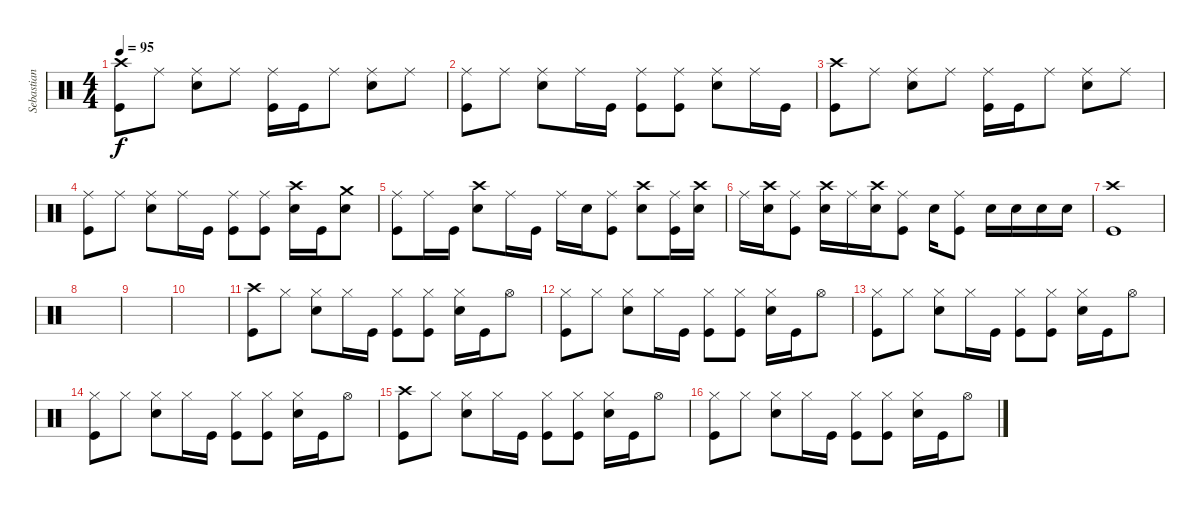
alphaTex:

\track ("Sebastian" "Sebastian") {instrument percussion}
\staff {score}
\articulation defaults
\ts (4 4)
\tempo 95
\clef neutral
\ks c
("Kick (hit)" "Crash high (hit)").8{dy f} "Ride (middle)".8 ("Snare (hit) 2" "Ride (middle)").8 "Ride (middle)".8 ("Kick (hit)" "Ride (middle)").16 "Kick (hit)".16 "Ride (middle)".8 ("Snare (hit) 2" "Ride (middle)").8 "Ride (middle)".8 |
("Kick (hit)" "Ride (middle)").8 "Ride (middle)".8 ("Snare (hit) 2" "Ride (middle)").8 "Ride (middle)".16 "Kick (hit)".16 ("Kick (hit)" "Ride (middle)").8 ("Kick (hit)" "Ride (middle)").8 ("Snare (hit) 2" "Ride (middle)").8 "Ride (middle)".16 "Kick (hit)".16 |
("Kick (hit)" "Crash high (hit)").8 "Ride (middle)".8 ("Snare (hit) 2" "Ride (middle)").8 "Ride (middle)".8 ("Kick (hit)" "Ride (middle)").16 "Kick (hit)".16 "Ride (middle)".8 ("Snare (hit) 2" "Ride (middle)").8 "Ride (middle)".8 |
("Kick (hit)" "Ride (middle)").8 "Ride (middle)".8 ("Snare (hit) 2" "Ride (middle)").8 "Ride (middle)".16 "Kick (hit)".16 ("Kick (hit)" "Ride (middle)").8 ("Kick (hit)" "Ride (middle)").8 ("Snare (hit) 2" "Crash high (hit)").16 "Kick (hit)".16 ("Snare (hit) 2" "Crash medium (hit)").8 |
("Kick (hit)" "Ride (middle)").8 "Ride (middle)".16 "Kick (hit)".16 ("Snare (hit) 2" "Crash high (hit)").8 "Ride (middle)".16 "Kick (hit)".16 "Ride (middle)".16 "Snare (hit) 2".16 ("Kick (hit)" "Ride (middle)").8 ("Snare (hit) 2" "Crash high (hit)").8 ("Kick (hit)" "Ride (middle)").16 ("Snare (hit) 2" "Crash high (hit)").16 |
"Ride (middle)".16 ("Snare (hit) 2" "Crash high (hit)").16 ("Kick (hit)" "Ride (middle)").8 ("Snare (hit) 2" "Crash high (hit)").16 "Ride (middle)".16 ("Snare (hit) 2" "Crash high (hit)").16 ("Kick (hit)" "Ride (middle)").8 "Snare (hit) 2".16 ("Kick (hit)" "Ride (middle)").8 "Snare (hit) 2".16 "Snare (hit) 2".16 "Snare (hit) 2".16 "Snare (hit) 2".16 |
("Kick (hit)" "Crash high (hit)").1 |
|
|
|
("Kick (hit)" "Crash high (hit)").8 "Hi-Hat (closed)".8 ("Snare (hit) 2" "Hi-Hat (closed)").8 "Hi-Hat (closed)".16 "Kick (hit)".16 ("Kick (hit)" "Hi-Hat (closed)").8 ("Kick (hit)" "Hi-Hat (closed)").8 ("Snare (hit) 2" "Hi-Hat (closed)").16 "Kick (hit)".16 "Hi-Hat (open)".8 |
("Kick (hit)" "Hi-Hat (closed)").8 "Hi-Hat (closed)".8 ("Snare (hit) 2" "Hi-Hat (closed)").8 "Hi-Hat (closed)".16 "Kick (hit)".16 ("Kick (hit)" "Hi-Hat (closed)").8 ("Kick (hit)" "Hi-Hat (closed)").8 ("Snare (hit) 2" "Hi-Hat (closed)").16 "Kick (hit)".16 "Hi-Hat (open)".8 |
("Kick (hit)" "Hi-Hat (closed)").8 "Hi-Hat (closed)".8 ("Snare (hit) 2" "Hi-Hat (closed)").8 "Hi-Hat (closed)".16 "Kick (hit)".16 ("Kick (hit)" "Hi-Hat (closed)").8 ("Kick (hit)" "Hi-Hat (closed)").8 ("Snare (hit) 2" "Hi-Hat (closed)").16 "Kick (hit)".16 "Hi-Hat (open)".8 |
("Kick (hit)" "Hi-Hat (closed)").8 "Hi-Hat (closed)".8 ("Snare (hit) 2" "Hi-Hat (closed)").8 "Hi-Hat (closed)".16 "Kick (hit)".16 ("Kick (hit)" "Hi-Hat (closed)").8 ("Kick (hit)" "Hi-Hat (closed)").8 ("Snare (hit) 2" "Hi-Hat (closed)").16 "Kick (hit)".16 "Hi-Hat (open)".8 |
("Kick (hit)" "Crash high (hit)").8 "Hi-Hat (closed)".8 ("Snare (hit) 2" "Hi-Hat (closed)").8 "Hi-Hat (closed)".16 "Kick (hit)".16 ("Kick (hit)" "Hi-Hat (closed)").8 ("Kick (hit)" "Hi-Hat (closed)").8 ("Snare (hit) 2" "Hi-Hat (closed)").16 "Kick (hit)".16 "Hi-Hat (open)".8 |
("Kick (hit)" "Hi-Hat (closed)").8 "Hi-Hat (closed)".8 ("Snare (hit) 2" "Hi-Hat (closed)").8 "Hi-Hat (closed)".16 "Kick (hit)".16 ("Kick (hit)" "Hi-Hat (closed)").8 ("Kick (hit)" "Hi-Hat (closed)").8 ("Snare (hit) 2" "Hi-Hat (closed)").16 "Kick (hit)".16 "Hi-Hat (open)".8
